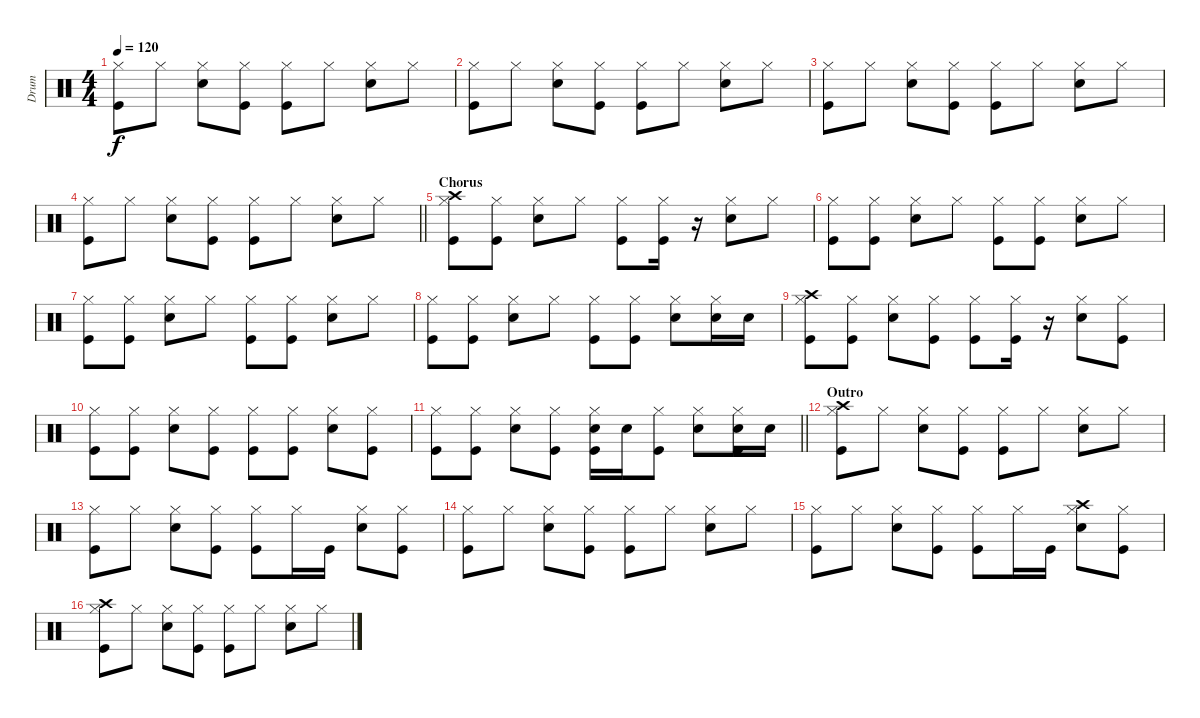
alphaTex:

\track ("Drum" "Drum") {instrument percussion}
\staff {score}
\articulation defaults
\ts (4 4)
\tempo 120
\clef neutral
\ks c
("Hi-Hat (closed)" "Kick (hit)").8{dy f} "Hi-Hat (closed)".8 ("Hi-Hat (closed)" "Snare (hit) 2").8 ("Hi-Hat (closed)" "Kick (hit)").8 ("Hi-Hat (closed)" "Kick (hit)").8 "Hi-Hat (closed)".8 ("Hi-Hat (closed)" "Snare (hit) 2").8 "Hi-Hat (closed)".8 |
("Hi-Hat (closed)" "Kick (hit)").8 "Hi-Hat (closed)".8 ("Hi-Hat (closed)" "Snare (hit) 2").8 ("Hi-Hat (closed)" "Kick (hit)").8 ("Hi-Hat (closed)" "Kick (hit)").8 "Hi-Hat (closed)".8 ("Hi-Hat (closed)" "Snare (hit) 2").8 "Hi-Hat (closed)".8 |
("Hi-Hat (closed)" "Kick (hit)").8 "Hi-Hat (closed)".8 ("Hi-Hat (closed)" "Snare (hit) 2").8 ("Hi-Hat (closed)" "Kick (hit)").8 ("Hi-Hat (closed)" "Kick (hit)").8 "Hi-Hat (closed)".8 ("Hi-Hat (closed)" "Snare (hit) 2").8 "Hi-Hat (closed)".8 |
\barLineRight lightlight
("Hi-Hat (closed)" "Kick (hit)").8 "Hi-Hat (closed)".8 ("Hi-Hat (closed)" "Snare (hit) 2").8 ("Hi-Hat (closed)" "Kick (hit)").8 ("Hi-Hat (closed)" "Kick (hit)").8 "Hi-Hat (closed)".8 ("Hi-Hat (closed)" "Snare (hit) 2").8 "Hi-Hat (closed)".8 |
\section ("" "Chorus")
("Hi-Hat (closed)" "Crash high (hit)" "Kick (hit)").8 ("Hi-Hat (closed)" "Kick (hit)").8 ("Hi-Hat (closed)" "Snare (hit) 2").8 "Hi-Hat (closed)".8 ("Hi-Hat (closed)" "Kick (hit)").8 ("Hi-Hat (closed)" "Kick (hit)").16 r.16 ("Hi-Hat (closed)" "Snare (hit) 2").8 "Hi-Hat (closed)".8 |
("Hi-Hat (closed)" "Kick (hit)").8 ("Hi-Hat (closed)" "Kick (hit)").8 ("Hi-Hat (closed)" "Snare (hit) 2").8 "Hi-Hat (closed)".8 ("Hi-Hat (closed)" "Kick (hit)").8 ("Hi-Hat (closed)" "Kick (hit)").8 ("Hi-Hat (closed)" "Snare (hit) 2").8 "Hi-Hat (closed)".8 |
("Hi-Hat (closed)" "Kick (hit)").8 ("Hi-Hat (closed)" "Kick (hit)").8 ("Hi-Hat (closed)" "Snare (hit) 2").8 "Hi-Hat (closed)".8 ("Hi-Hat (closed)" "Kick (hit)").8 ("Hi-Hat (closed)" "Kick (hit)").8 ("Hi-Hat (closed)" "Snare (hit) 2").8 "Hi-Hat (closed)".8 |
("Hi-Hat (closed)" "Kick (hit)").8 ("Hi-Hat (closed)" "Kick (hit)").8 ("Hi-Hat (closed)" "Snare (hit) 2").8 "Hi-Hat (closed)".8 ("Hi-Hat (closed)" "Kick (hit)").8 ("Hi-Hat (closed)" "Kick (hit)").8 ("Hi-Hat (closed)" "Snare (hit) 2").8 ("Hi-Hat (closed)" "Snare (hit) 2").16 "Snare (hit) 2".16 |
("Hi-Hat (closed)" "Crash high (hit)" "Kick (hit)").8 ("Hi-Hat (closed)" "Kick (hit)").8 ("Hi-Hat (closed)" "Snare (hit) 2").8 ("Hi-Hat (closed)" "Kick (hit)").8 ("Hi-Hat (closed)" "Kick (hit)").8 ("Hi-Hat (closed)" "Kick (hit)").16 r.16 ("Hi-Hat (closed)" "Snare (hit) 2").8 ("Hi-Hat (closed)" "Kick (hit)").8 |
("Hi-Hat (closed)" "Kick (hit)").8 ("Hi-Hat (closed)" "Kick (hit)").8 ("Hi-Hat (closed)" "Snare (hit) 2").8 ("Hi-Hat (closed)" "Kick (hit)").8 ("Hi-Hat (closed)" "Kick (hit)").8 ("Hi-Hat (closed)" "Kick (hit)").8 ("Hi-Hat (closed)" "Snare (hit) 2").8 ("Hi-Hat (closed)" "Kick (hit)").8 |
\barLineRight lightlight
("Hi-Hat (closed)" "Kick (hit)").8 ("Hi-Hat (closed)" "Kick (hit)").8 ("Hi-Hat (closed)" "Snare (hit) 2").8 ("Hi-Hat (closed)" "Kick (hit)").8 ("Hi-Hat (closed)" "Snare (hit) 2" "Kick (hit)").16 "Snare (hit) 2".16 ("Hi-Hat (closed)" "Kick (hit)").8 ("Hi-Hat (closed)" "Snare (hit) 2").8 ("Hi-Hat (closed)" "Snare (hit) 2" "Kick (hit)").16 "Snare (hit) 2".16 |
\section ("" "Outro")
("Hi-Hat (closed)" "Crash high (hit)" "Kick (hit)").8 "Hi-Hat (closed)".8 ("Hi-Hat (closed)" "Snare (hit) 2").8 ("Hi-Hat (closed)" "Kick (hit)").8 ("Hi-Hat (closed)" "Kick (hit)").8 "Hi-Hat (closed)".8 ("Hi-Hat (closed)" "Snare (hit) 2").8 "Hi-Hat (closed)".8 |
("Hi-Hat (closed)" "Kick (hit)").8 "Hi-Hat (closed)".8 ("Hi-Hat (closed)" "Snare (hit) 2").8 ("Hi-Hat (closed)" "Kick (hit)").8 ("Hi-Hat (closed)" "Kick (hit)").8 "Hi-Hat (closed)".16 "Kick (hit)".16 ("Hi-Hat (closed)" "Snare (hit) 2").8 ("Hi-Hat (closed)" "Kick (hit)").8 |
("Hi-Hat (closed)" "Kick (hit)").8 "Hi-Hat (closed)".8 ("Hi-Hat (closed)" "Snare (hit) 2").8 ("Hi-Hat (closed)" "Kick (hit)").8 ("Hi-Hat (closed)" "Kick (hit)").8 "Hi-Hat (closed)".8 ("Hi-Hat (closed)" "Snare (hit) 2").8 "Hi-Hat (closed)".8 |
("Hi-Hat (closed)" "Kick (hit)").8 "Hi-Hat (closed)".8 ("Hi-Hat (closed)" "Snare (hit) 2").8 ("Hi-Hat (closed)" "Kick (hit)").8 ("Hi-Hat (closed)" "Kick (hit)").8 "Hi-Hat (closed)".16 "Kick (hit)".16 ("Hi-Hat (closed)" "Snare (hit) 2" "Crash high (hit)").8 ("Hi-Hat (closed)" "Kick (hit)").8 |
("Hi-Hat (closed)" "Crash high (hit)" "Kick (hit)").8 "Hi-Hat (closed)".8 ("Hi-Hat (closed)" "Snare (hit) 2").8 ("Hi-Hat (closed)" "Kick (hit)").8 ("Hi-Hat (closed)" "Kick (hit)").8 "Hi-Hat (closed)".8 ("Hi-Hat (closed)" "Snare (hit) 2").8 "Hi-Hat (closed)".8
